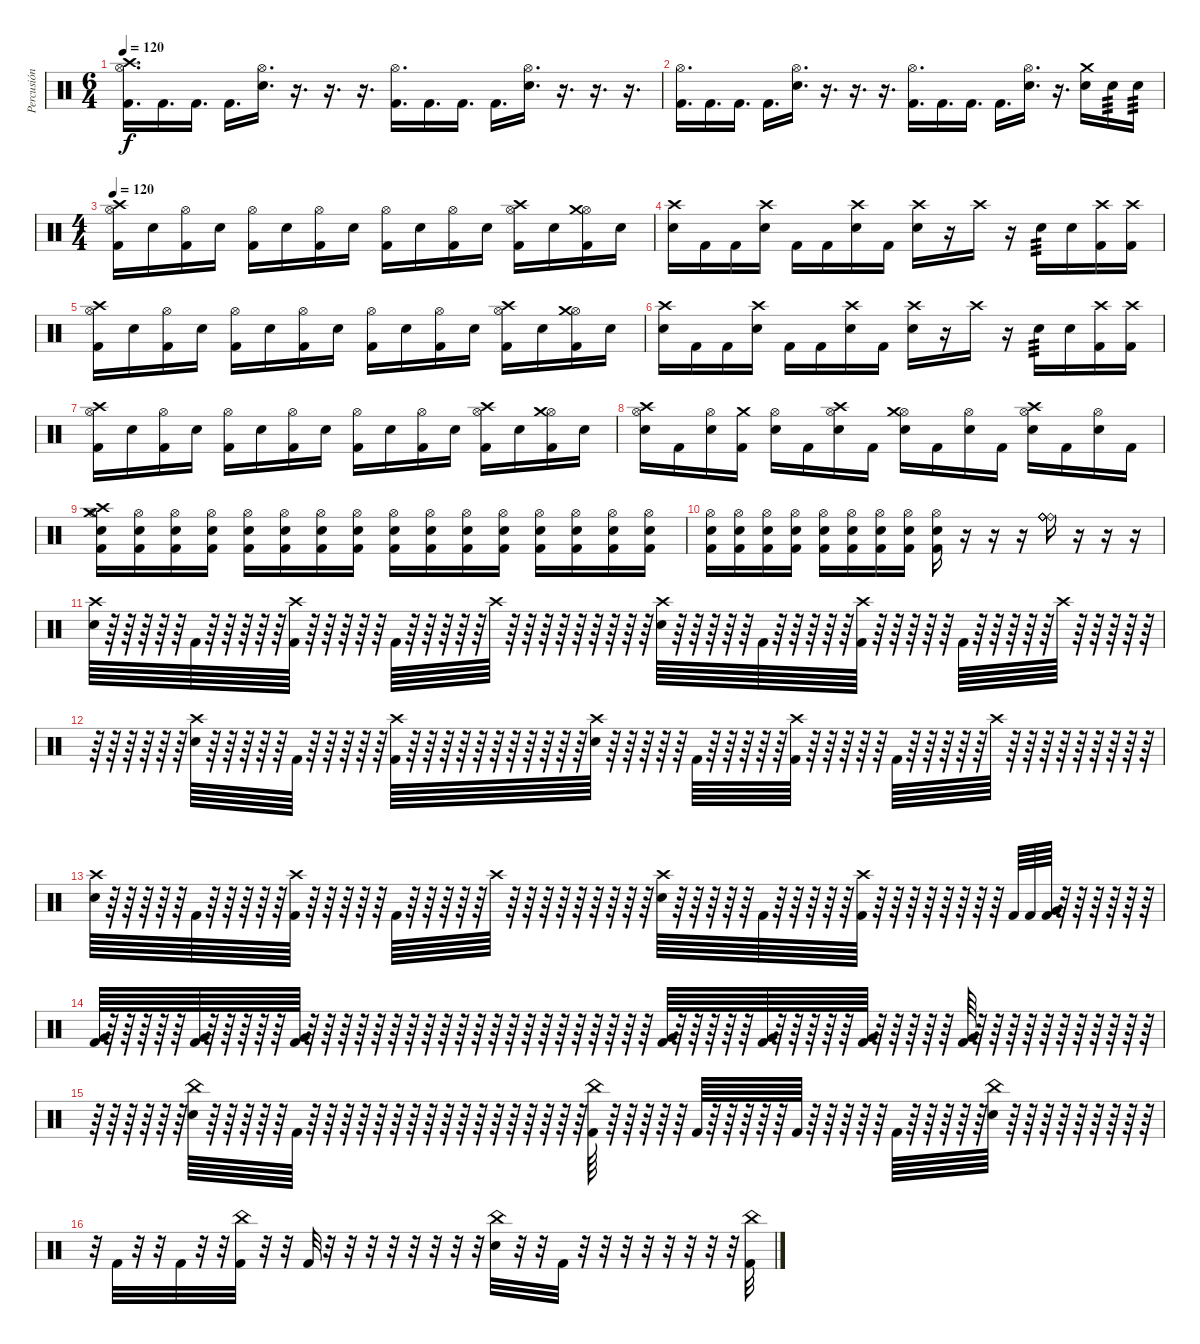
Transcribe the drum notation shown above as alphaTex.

\track ("Percusión" "Percusión") {instrument percussion}
\staff {score}
\articulation defaults
\ts (6 4)
\tempo 120
\clef neutral
\ks c
("Hi-Hat (open)" "Kick (hit) 2" "Crash high (hit)").16{d dy f} "Kick (hit) 2".16{d} "Kick (hit) 2".16{d} "Kick (hit) 2".16{d} ("Hi-Hat (open)" "Electric Snare (hit)").16{d} r.16{d} r.16{d} r.16{d} ("Hi-Hat (open)" "Kick (hit) 2").16{d} "Kick (hit) 2".16{d} "Kick (hit) 2".16{d} "Kick (hit) 2".16{d} ("Hi-Hat (open)" "Electric Snare (hit)").16{d} r.16{d} r.16{d} r.16{d} |
("Hi-Hat (open)" "Kick (hit) 2").16{d} "Kick (hit) 2".16{d} "Kick (hit) 2".16{d} "Kick (hit) 2".16{d} ("Hi-Hat (open)" "Electric Snare (hit)").16{d} r.16{d} r.16{d} r.16{d} ("Hi-Hat (open)" "Kick (hit) 2").16{d} "Kick (hit) 2".16{d} "Kick (hit) 2".16{d} "Kick (hit) 2".16{d} ("Hi-Hat (open)" "Electric Snare (hit)").16{d} r.16{d} ("Electric Snare (hit)" "Crash medium (hit)").16 "Electric Snare (hit)".16{tp 3} "Electric Snare (hit)".16{tp 3} |
\ts (4 4)
\tempo 120
("Kick (hit) 2" "Hi-Hat (open)" "Crash high (hit)").16 "Electric Snare (hit)".16 ("Kick (hit) 2" "Hi-Hat (open)").16 "Electric Snare (hit)".16 ("Kick (hit) 2" "Hi-Hat (open)").16 "Electric Snare (hit)".16 ("Kick (hit) 2" "Hi-Hat (open)").16 "Electric Snare (hit)".16 ("Kick (hit) 2" "Hi-Hat (open)").16 "Electric Snare (hit)".16 ("Kick (hit) 2" "Hi-Hat (open)").16 "Electric Snare (hit)".16 ("Kick (hit) 2" "Hi-Hat (open)" "Crash high (hit)").16 "Electric Snare (hit)".16 ("Kick (hit) 2" "Hi-Hat (open)" "Crash medium (hit)").16 "Electric Snare (hit)".16 |
("Electric Snare (hit)" "Crash high (hit)").16 "Kick (hit) 2".16 "Kick (hit) 2".16 ("Electric Snare (hit)" "Crash high (hit)").16 "Kick (hit) 2".16 "Kick (hit) 2".16 ("Electric Snare (hit)" "Crash high (hit)").16 "Kick (hit) 2".16 ("Electric Snare (hit)" "Crash high (hit)").16 r.16 "Crash high (hit)".16 r.16 "Electric Snare (hit)".16{tp 3} "Electric Snare (hit)".16 ("Kick (hit) 2" "Crash high (hit)").16 ("Kick (hit) 2" "Crash high (hit)").16 |
("Kick (hit) 2" "Hi-Hat (open)" "Crash high (hit)").16 "Electric Snare (hit)".16 ("Kick (hit) 2" "Hi-Hat (open)").16 "Electric Snare (hit)".16 ("Kick (hit) 2" "Hi-Hat (open)").16 "Electric Snare (hit)".16 ("Kick (hit) 2" "Hi-Hat (open)").16 "Electric Snare (hit)".16 ("Kick (hit) 2" "Hi-Hat (open)").16 "Electric Snare (hit)".16 ("Kick (hit) 2" "Hi-Hat (open)").16 "Electric Snare (hit)".16 ("Kick (hit) 2" "Hi-Hat (open)" "Crash high (hit)").16 "Electric Snare (hit)".16 ("Kick (hit) 2" "Hi-Hat (open)" "Crash medium (hit)").16 "Electric Snare (hit)".16 |
("Electric Snare (hit)" "Crash high (hit)").16 "Kick (hit) 2".16 "Kick (hit) 2".16 ("Electric Snare (hit)" "Crash high (hit)").16 "Kick (hit) 2".16 "Kick (hit) 2".16 ("Electric Snare (hit)" "Crash high (hit)").16 "Kick (hit) 2".16 ("Electric Snare (hit)" "Crash high (hit)").16 r.16 "Crash high (hit)".16 r.16 "Electric Snare (hit)".16{tp 3} "Electric Snare (hit)".16 ("Kick (hit) 2" "Crash high (hit)").16 ("Kick (hit) 2" "Crash high (hit)").16 |
("Kick (hit) 2" "Hi-Hat (open)" "Crash high (hit)").16 "Electric Snare (hit)".16 ("Kick (hit) 2" "Hi-Hat (open)").16 "Electric Snare (hit)".16 ("Kick (hit) 2" "Hi-Hat (open)").16 "Electric Snare (hit)".16 ("Kick (hit) 2" "Hi-Hat (open)").16 "Electric Snare (hit)".16 ("Kick (hit) 2" "Hi-Hat (open)").16 "Electric Snare (hit)".16 ("Kick (hit) 2" "Hi-Hat (open)").16 "Electric Snare (hit)".16 ("Kick (hit) 2" "Hi-Hat (open)" "Crash high (hit)").16 "Electric Snare (hit)".16 ("Kick (hit) 2" "Hi-Hat (open)" "Crash medium (hit)").16 "Electric Snare (hit)".16 |
("Electric Snare (hit)" "Hi-Hat (open)" "Crash high (hit)").16 "Kick (hit) 2".16 ("Electric Snare (hit)" "Hi-Hat (open)").16 ("Kick (hit) 2" "Crash medium (hit)").16 ("Electric Snare (hit)" "Hi-Hat (open)").16 "Kick (hit) 2".16 ("Electric Snare (hit)" "Hi-Hat (open)" "Crash high (hit)").16 "Kick (hit) 2".16 ("Electric Snare (hit)" "Hi-Hat (open)" "Crash medium (hit)").16 "Kick (hit) 2".16 ("Electric Snare (hit)" "Hi-Hat (open)").16 "Kick (hit) 2".16 ("Electric Snare (hit)" "Hi-Hat (open)" "Crash high (hit)").16 "Kick (hit) 2".16 ("Electric Snare (hit)" "Hi-Hat (open)").16 "Kick (hit) 2".16 |
("Electric Snare (hit)" "Hi-Hat (open)" "Crash high (hit)" "Crash medium (hit)" "Kick (hit) 2").16 ("Electric Snare (hit)" "Hi-Hat (open)" "Kick (hit) 2").16 ("Electric Snare (hit)" "Hi-Hat (open)" "Kick (hit) 2").16 ("Electric Snare (hit)" "Hi-Hat (open)" "Kick (hit) 2").16 ("Electric Snare (hit)" "Hi-Hat (open)" "Kick (hit) 2").16 ("Electric Snare (hit)" "Hi-Hat (open)" "Kick (hit) 2").16 ("Electric Snare (hit)" "Hi-Hat (open)" "Kick (hit) 2").16 ("Electric Snare (hit)" "Hi-Hat (open)" "Kick (hit) 2").16 ("Electric Snare (hit)" "Hi-Hat (open)" "Kick (hit) 2").16 ("Electric Snare (hit)" "Hi-Hat (open)" "Kick (hit) 2").16 ("Electric Snare (hit)" "Hi-Hat (open)" "Kick (hit) 2").16 ("Electric Snare (hit)" "Hi-Hat (open)" "Kick (hit) 2").16 ("Electric Snare (hit)" "Hi-Hat (open)" "Kick (hit) 2").16 ("Electric Snare (hit)" "Hi-Hat (open)" "Kick (hit) 2").16 ("Electric Snare (hit)" "Hi-Hat (open)" "Kick (hit) 2").16 ("Electric Snare (hit)" "Hi-Hat (open)" "Kick (hit) 2").16 |
("Electric Snare (hit)" "Hi-Hat (open)" "Kick (hit) 2").16 ("Electric Snare (hit)" "Hi-Hat (open)" "Kick (hit) 2").16 ("Electric Snare (hit)" "Hi-Hat (open)" "Kick (hit) 2").16 ("Electric Snare (hit)" "Hi-Hat (open)" "Kick (hit) 2").16 ("Electric Snare (hit)" "Hi-Hat (open)" "Kick (hit) 2").16 ("Electric Snare (hit)" "Hi-Hat (open)" "Kick (hit) 2").16 ("Electric Snare (hit)" "Hi-Hat (open)" "Kick (hit) 2").16 ("Electric Snare (hit)" "Hi-Hat (open)" "Kick (hit) 2").16 ("Electric Snare (hit)" "Hi-Hat (open)" "Kick (hit) 2").16 r.16 r.16 r.16 ("Ride (bell)" "Ride (bell)" "Ride (bell)" "Ride (bell)").16 r.16 r.16 r.16 |
("Crash high (hit)" "Electric Snare (hit)").64 r.64 r.64 r.64 r.64 r.64 "Kick (hit) 2".64 r.64 r.64 r.64 r.64 r.64 ("Crash high (hit)" "Kick (hit) 2").64 r.64 r.64 r.64 r.64 r.64 "Kick (hit) 2".64 r.64 r.64 r.64 r.64 r.64 "Crash high (hit)".64 r.64 r.64 r.64 r.64 r.64 r.64 r.64 r.64 r.64 ("Crash high (hit)" "Electric Snare (hit)").64 r.64 r.64 r.64 r.64 r.64 "Kick (hit) 2".64 r.64 r.64 r.64 r.64 r.64 ("Crash high (hit)" "Kick (hit) 2").64 r.64 r.64 r.64 r.64 r.64 "Kick (hit) 2".64 r.64 r.64 r.64 r.64 r.64 "Crash high (hit)".64 r.64 r.64 r.64 r.64 r.64 |
r.64 r.64 r.64 r.64 r.64 r.64 ("Crash high (hit)" "Electric Snare (hit)").64 r.64 r.64 r.64 r.64 r.64 "Kick (hit) 2".64 r.64 r.64 r.64 r.64 r.64 ("Crash high (hit)" "Kick (hit) 2").64 r.64 r.64 r.64 r.64 r.64 r.64 r.64 r.64 r.64 r.64 r.64 ("Crash high (hit)" "Electric Snare (hit)").64 r.64 r.64 r.64 r.64 r.64 "Kick (hit) 2".64 r.64 r.64 r.64 r.64 r.64 ("Crash high (hit)" "Kick (hit) 2").64 r.64 r.64 r.64 r.64 r.64 "Kick (hit) 2".64 r.64 r.64 r.64 r.64 r.64 "Crash high (hit)".64 r.64 r.64 r.64 r.64 r.64 r.64 r.64 r.64 r.64 |
("Crash high (hit)" "Electric Snare (hit)").64 r.64 r.64 r.64 r.64 r.64 "Kick (hit) 2".64 r.64 r.64 r.64 r.64 r.64 ("Crash high (hit)" "Kick (hit) 2").64 r.64 r.64 r.64 r.64 r.64 "Kick (hit) 2".64 r.64 r.64 r.64 r.64 r.64 "Crash high (hit)".64 r.64 r.64 r.64 r.64 r.64 r.64 r.64 r.64 r.64 ("Crash high (hit)" "Electric Snare (hit)").64 r.64 r.64 r.64 r.64 r.64 "Kick (hit) 2".64 r.64 r.64 r.64 r.64 r.64 ("Crash high (hit)" "Kick (hit) 2").64 r.64 r.64 r.64 r.64 r.64 r.64 r.64 r.64 "Kick (hit) 2".64 "Kick (hit) 2".64 ("Very Low Tom (hit)" "Kick (hit) 2").64 r.64 r.64 r.64 r.64 r.64 r.64 |
("Very Low Tom (hit)" "Kick (hit) 2").64 r.64 r.64 r.64 r.64 r.64 ("Very Low Tom (hit)" "Kick (hit) 2").64 r.64 r.64 r.64 r.64 r.64 ("Very Low Tom (hit)" "Kick (hit) 2").64 r.64 r.64 r.64 r.64 r.64 r.64 r.64 r.64 r.64 r.64 r.64 r.64 r.64 r.64 r.64 r.64 r.64 r.64 r.64 r.64 r.64 ("Very Low Tom (hit)" "Kick (hit) 2").64 r.64 r.64 r.64 r.64 r.64 ("Very Low Tom (hit)" "Kick (hit) 2").64 r.64 r.64 r.64 r.64 r.64 ("Very Low Tom (hit)" "Kick (hit) 2").64 r.64 r.64 r.64 r.64 r.64 ("Very Low Tom (hit)" "Kick (hit) 2").64 r.64 r.64 r.64 r.64 r.64 r.64 r.64 r.64 r.64 r.64 r.64 |
r.64 r.64 r.64 r.64 r.64 r.64 ("China (hit)" "Electric Snare (hit)").64 r.64 r.64 r.64 r.64 r.64 "Kick (hit) 2".64 r.64 r.64 r.64 r.64 r.64 r.64 r.64 r.64 r.64 r.64 r.64 r.64 r.64 r.64 r.64 r.64 r.64 ("Kick (hit) 2" "China (hit)").64 r.64 r.64 r.64 r.64 r.64 "Kick (hit) 2".64 r.64 r.64 r.64 r.64 r.64 "Kick (hit) 2".64 r.64 r.64 r.64 r.64 r.64 "Kick (hit) 2".64 r.64 r.64 r.64 r.64 r.64 ("Electric Snare (hit)" "China (hit)").64 r.64 r.64 r.64 r.64 r.64 r.64 r.64 r.64 r.64 |
r.32 "Kick (hit) 2".32 r.32 r.32 "Kick (hit) 2".32 r.32 r.32 ("China (hit)" "Kick (hit) 2").32 r.32 r.32 "Kick (hit) 2".32 r.32 r.32 r.32 r.32 r.32 r.32 r.32 r.32 ("China (hit)" "Electric Snare (hit)").32 r.32 r.32 "Kick (hit) 2".32 r.32 r.32 r.32 r.32 r.32 r.32 r.32 r.32 ("China (hit)" "Kick (hit) 2").32
